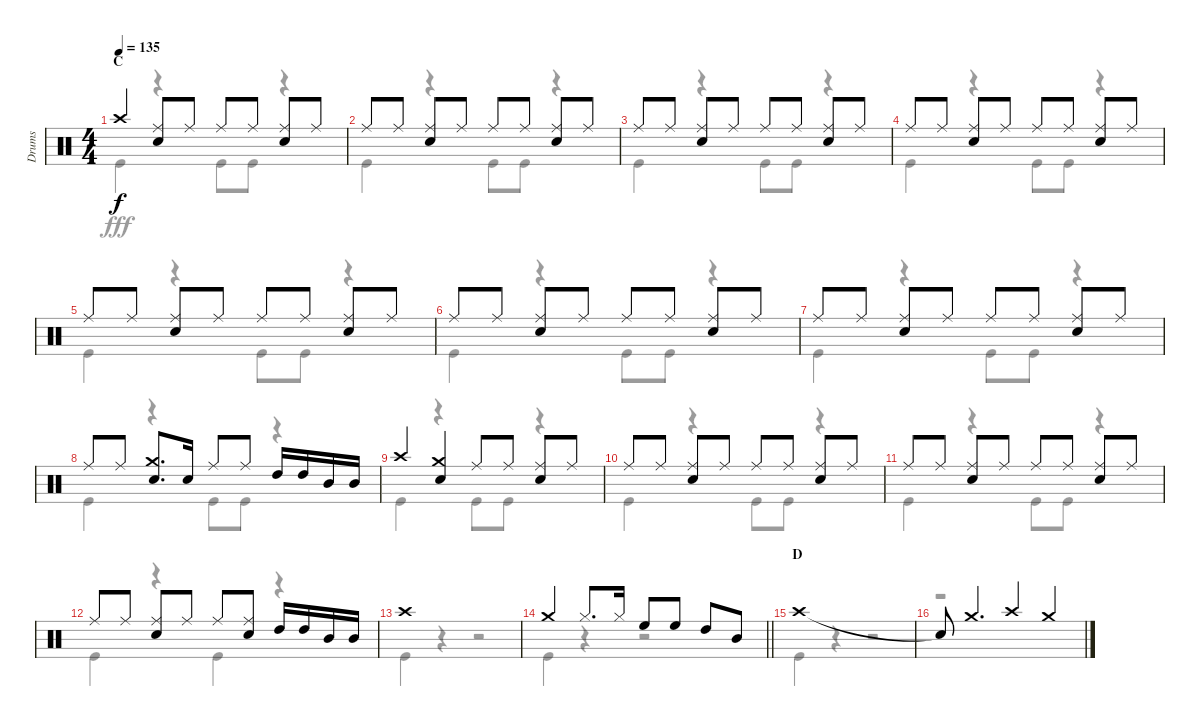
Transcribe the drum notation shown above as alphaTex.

\track ("Drums" "Drums") {instrument percussion}
\staff {score}
\articulation defaults
\voice
\ts (4 4)
\section ("" "C")
\tempo 135
\clef neutral
\ks c "Crash high (hit)".4{dy f}
("Ride (middle)" "Snare (hit) 2").8 "Ride (middle)".8 "Ride (middle)".8 "Ride (middle)".8 ("Ride (middle)" "Snare (hit) 2").8 "Ride (middle)".8 |
"Ride (middle)".8 "Ride (middle)".8 ("Ride (middle)" "Snare (hit) 2").8 "Ride (middle)".8 "Ride (middle)".8 "Ride (middle)".8 ("Ride (middle)" "Snare (hit) 2").8 "Ride (middle)".8 |
"Ride (middle)".8 "Ride (middle)".8 ("Ride (middle)" "Snare (hit) 2").8 "Ride (middle)".8 "Ride (middle)".8 "Ride (middle)".8 ("Ride (middle)" "Snare (hit) 2").8 "Ride (middle)".8 |
"Ride (middle)".8 "Ride (middle)".8 ("Ride (middle)" "Snare (hit) 2").8 "Ride (middle)".8 "Ride (middle)".8 "Ride (middle)".8 ("Ride (middle)" "Snare (hit) 2").8 "Ride (middle)".8 |
"Ride (middle)".8 "Ride (middle)".8 ("Ride (middle)" "Snare (hit) 2").8 "Ride (middle)".8 "Ride (middle)".8 "Ride (middle)".8 ("Ride (middle)" "Snare (hit) 2").8 "Ride (middle)".8 |
"Ride (middle)".8 "Ride (middle)".8 ("Ride (middle)" "Snare (hit) 2").8 "Ride (middle)".8 "Ride (middle)".8 "Ride (middle)".8 ("Ride (middle)" "Snare (hit) 2").8 "Ride (middle)".8 |
"Ride (middle)".8 "Ride (middle)".8 ("Ride (middle)" "Snare (hit) 2").8 "Ride (middle)".8 "Ride (middle)".8 "Ride (middle)".8 ("Ride (middle)" "Snare (hit) 2").8 "Ride (middle)".8 |
"Ride (middle)".8 "Ride (middle)".8 ("Crash medium (hit)" "Snare (hit) 2").8{d} "Snare (hit) 2".16 "Ride (middle)".8 "Ride (middle)".8 "High Tom (hit)".16 "High Tom (hit)".16 "Mid Tom (hit)".16 "Mid Tom (hit)".16 |
"Crash high (hit)".4 ("Crash medium (hit)" "Snare (hit) 2").4 "Ride (middle)".8 "Ride (middle)".8 ("Ride (middle)" "Snare (hit) 2").8 "Ride (middle)".8 |
"Ride (middle)".8 "Ride (middle)".8 ("Ride (middle)" "Snare (hit) 2").8 "Ride (middle)".8 "Ride (middle)".8 "Ride (middle)".8 ("Ride (middle)" "Snare (hit) 2").8 "Ride (middle)".8 |
"Ride (middle)".8 "Ride (middle)".8 ("Ride (middle)" "Snare (hit) 2").8 "Ride (middle)".8 "Ride (middle)".8 "Ride (middle)".8 ("Ride (middle)" "Snare (hit) 2").8 "Ride (middle)".8 |
"Ride (middle)".8 "Ride (middle)".8 ("Ride (middle)" "Snare (hit) 2").8 "Ride (middle)".8 "Ride (middle)".8 ("Ride (middle)" "Snare (hit) 2").8 "High Tom (hit)".16 "High Tom (hit)".16 "Mid Tom (hit)".16 "Mid Tom (hit)".16 |
"Crash high (hit)".1 |
\barLineRight lightlight "Crash medium (hit)".4 "Hi-Hat (closed)".8{d} "Hi-Hat (closed)".16 "High Floor Tom (hit)".8 "High Floor Tom (hit)".8 "High Tom (hit)".8 "Mid Tom (hit)".8
|
\section ("" "D")
"Crash high (hit)".1 |
"Snare (hit)"{t}.8 "Crash medium (hit)".4{d} "Crash high (hit)".4 "Crash medium (hit)".4
\voice
\clef neutral
\ottava regular
\simile none
\ks c "Kick (hit)".4{dy fff}
r.4 "Kick (hit)".8 "Kick (hit)".8 r.4 |
"Kick (hit)".4 r.4 "Kick (hit)".8 "Kick (hit)".8 r.4 |
"Kick (hit)".4 r.4 "Kick (hit)".8 "Kick (hit)".8 r.4 |
"Kick (hit)".4 r.4 "Kick (hit)".8 "Kick (hit)".8 r.4 |
"Kick (hit)".4 r.4 "Kick (hit)".8 "Kick (hit)".8 r.4 |
"Kick (hit)".4 r.4 "Kick (hit)".8 "Kick (hit)".8 r.4 |
"Kick (hit)".4 r.4 "Kick (hit)".8 "Kick (hit)".8 r.4 |
"Kick (hit)".4 r.4 "Kick (hit)".8 "Kick (hit)".8 r.4 |
"Kick (hit)".4 r.4 "Kick (hit)".8 "Kick (hit)".8 r.4 |
"Kick (hit)".4 r.4 "Kick (hit)".8 "Kick (hit)".8 r.4 |
"Kick (hit)".4 r.4 "Kick (hit)".8 "Kick (hit)".8 r.4 |
"Kick (hit)".4 r.4 "Kick (hit)".4 r.4 |
"Kick (hit)".4 r.4 r.2 |
\barLineRight lightlight "Kick (hit)".4
r.4 r.2 |
"Kick (hit)".4 r.4 r.2 |
r.1
